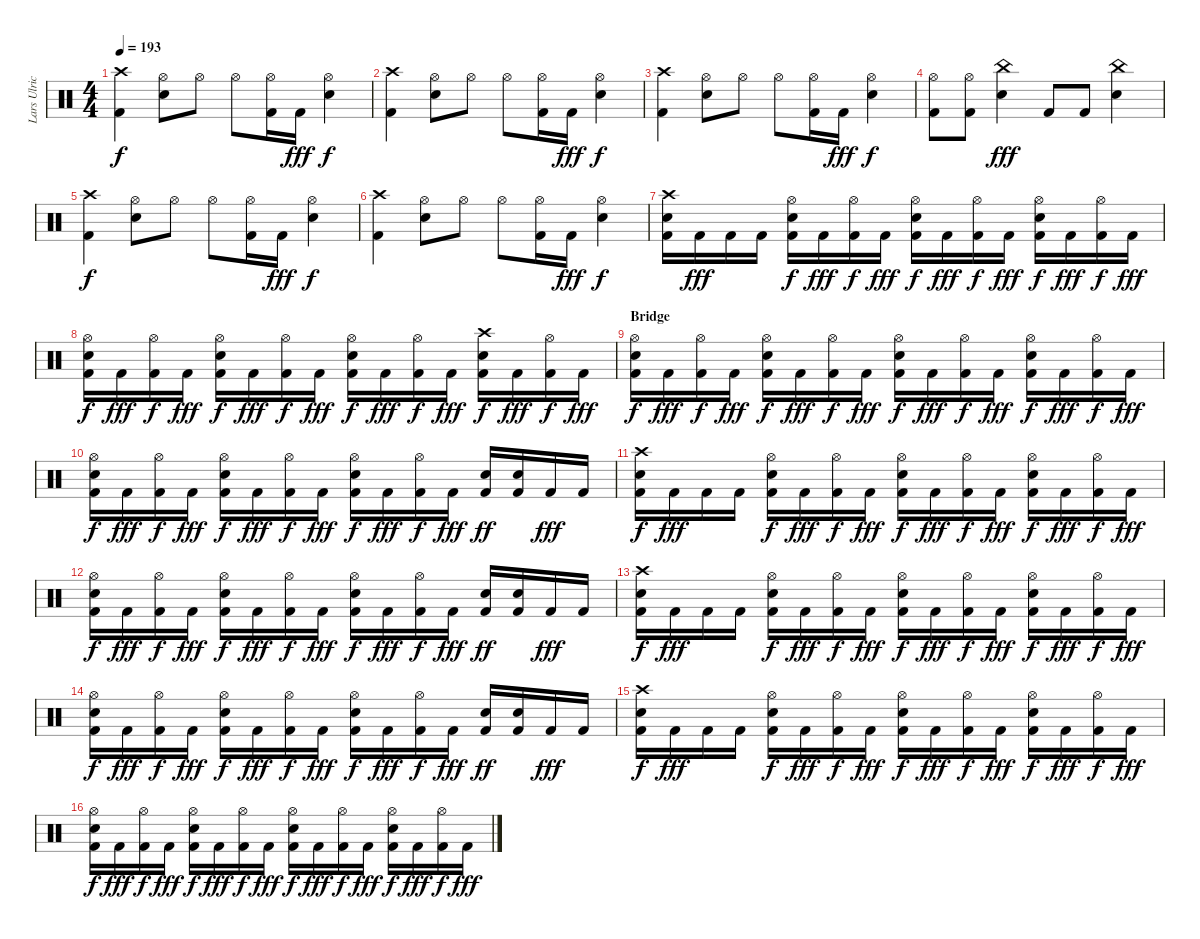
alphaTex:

\track ("Lars Ulrich - Drums" "Lars Ulric") {instrument percussion}
\staff {score}
\articulation defaults
\ts (4 4)
\tempo 193
\clef neutral
\ks c
("Crash high (hit)" "Kick (hit) 2").4{dy f} ("Hi-Hat (open)" "Snare (hit) 2").8 "Hi-Hat (open)".8 "Hi-Hat (open)".8 ("Hi-Hat (open)" "Kick (hit) 2").16 "Kick (hit) 2".16{dy fff} ("Hi-Hat (open)" "Snare (hit) 2").4{dy f} |
("Crash high (hit)" "Kick (hit) 2").4 ("Hi-Hat (open)" "Snare (hit) 2").8 "Hi-Hat (open)".8 "Hi-Hat (open)".8 ("Hi-Hat (open)" "Kick (hit) 2").16 "Kick (hit) 2".16{dy fff} ("Hi-Hat (open)" "Snare (hit) 2").4{dy f} |
("Crash high (hit)" "Kick (hit) 2").4 ("Hi-Hat (open)" "Snare (hit) 2").8 "Hi-Hat (open)".8 "Hi-Hat (open)".8 ("Hi-Hat (open)" "Kick (hit) 2").16 "Kick (hit) 2".16{dy fff} ("Hi-Hat (open)" "Snare (hit) 2").4{dy f} |
("Hi-Hat (open)" "Kick (hit) 2").8 ("Hi-Hat (open)" "Kick (hit) 2").8 ("China (hit)" "Snare (hit) 2").4{dy fff} "Kick (hit) 2".8 "Kick (hit) 2".8 ("China (hit)" "Snare (hit) 2").4 |
("Crash high (hit)" "Kick (hit) 2").4{dy f} ("Hi-Hat (open)" "Snare (hit) 2").8 "Hi-Hat (open)".8 "Hi-Hat (open)".8 ("Hi-Hat (open)" "Kick (hit) 2").16 "Kick (hit) 2".16{dy fff} ("Hi-Hat (open)" "Snare (hit) 2").4{dy f} |
("Crash high (hit)" "Kick (hit) 2").4 ("Hi-Hat (open)" "Snare (hit) 2").8 "Hi-Hat (open)".8 "Hi-Hat (open)".8 ("Hi-Hat (open)" "Kick (hit) 2").16 "Kick (hit) 2".16{dy fff} ("Hi-Hat (open)" "Snare (hit) 2").4{dy f} |
("Crash high (hit)" "Snare (hit) 2" "Kick (hit) 2").16 "Kick (hit) 2".16{dy fff} "Kick (hit) 2".16 "Kick (hit) 2".16 ("Hi-Hat (open)" "Snare (hit) 2" "Kick (hit) 2").16{dy f} "Kick (hit) 2".16{dy fff} ("Hi-Hat (open)" "Kick (hit) 2").16{dy f} "Kick (hit) 2".16{dy fff} ("Hi-Hat (open)" "Snare (hit) 2" "Kick (hit) 2").16{dy f} "Kick (hit) 2".16{dy fff} ("Hi-Hat (open)" "Kick (hit) 2").16{dy f} "Kick (hit) 2".16{dy fff} ("Hi-Hat (open)" "Snare (hit) 2" "Kick (hit) 2").16{dy f} "Kick (hit) 2".16{dy fff} ("Hi-Hat (open)" "Kick (hit) 2").16{dy f} "Kick (hit) 2".16{dy fff} |
("Hi-Hat (open)" "Snare (hit) 2" "Kick (hit) 2").16{dy f} "Kick (hit) 2".16{dy fff} ("Hi-Hat (open)" "Kick (hit) 2").16{dy f} "Kick (hit) 2".16{dy fff} ("Hi-Hat (open)" "Snare (hit) 2" "Kick (hit) 2").16{dy f} "Kick (hit) 2".16{dy fff} ("Hi-Hat (open)" "Kick (hit) 2").16{dy f} "Kick (hit) 2".16{dy fff} ("Hi-Hat (open)" "Snare (hit) 2" "Kick (hit) 2").16{dy f} "Kick (hit) 2".16{dy fff} ("Hi-Hat (open)" "Kick (hit) 2").16{dy f} "Kick (hit) 2".16{dy fff} ("Crash high (hit)" "Snare (hit) 2" "Kick (hit) 2").16{dy f} "Kick (hit) 2".16{dy fff} ("Hi-Hat (open)" "Kick (hit) 2").16{dy f} "Kick (hit) 2".16{dy fff} |
\section ("" "Bridge")
("Hi-Hat (open)" "Snare (hit) 2" "Kick (hit) 2").16{dy f} "Kick (hit) 2".16{dy fff} ("Hi-Hat (open)" "Kick (hit) 2").16{dy f} "Kick (hit) 2".16{dy fff} ("Hi-Hat (open)" "Snare (hit) 2" "Kick (hit) 2").16{dy f} "Kick (hit) 2".16{dy fff} ("Hi-Hat (open)" "Kick (hit) 2").16{dy f} "Kick (hit) 2".16{dy fff} ("Hi-Hat (open)" "Snare (hit) 2" "Kick (hit) 2").16{dy f} "Kick (hit) 2".16{dy fff} ("Hi-Hat (open)" "Kick (hit) 2").16{dy f} "Kick (hit) 2".16{dy fff} ("Hi-Hat (open)" "Snare (hit) 2" "Kick (hit) 2").16{dy f} "Kick (hit) 2".16{dy fff} ("Hi-Hat (open)" "Kick (hit) 2").16{dy f} "Kick (hit) 2".16{dy fff} |
("Hi-Hat (open)" "Snare (hit) 2" "Kick (hit) 2").16{dy f} "Kick (hit) 2".16{dy fff} ("Hi-Hat (open)" "Kick (hit) 2").16{dy f} "Kick (hit) 2".16{dy fff} ("Hi-Hat (open)" "Snare (hit) 2" "Kick (hit) 2").16{dy f} "Kick (hit) 2".16{dy fff} ("Hi-Hat (open)" "Kick (hit) 2").16{dy f} "Kick (hit) 2".16{dy fff} ("Hi-Hat (open)" "Snare (hit) 2" "Kick (hit) 2").16{dy f} "Kick (hit) 2".16{dy fff} ("Hi-Hat (open)" "Kick (hit) 2").16{dy f} "Kick (hit) 2".16{dy fff} ("Snare (hit) 2" "Kick (hit) 2").16{dy ff} ("Snare (hit) 2" "Kick (hit) 2").16 "Kick (hit) 2".16{dy fff} "Kick (hit) 2".16 |
("Crash high (hit)" "Snare (hit) 2" "Kick (hit) 2").16{dy f} "Kick (hit) 2".16{dy fff} "Kick (hit) 2".16 "Kick (hit) 2".16 ("Hi-Hat (open)" "Snare (hit) 2" "Kick (hit) 2").16{dy f} "Kick (hit) 2".16{dy fff} ("Hi-Hat (open)" "Kick (hit) 2").16{dy f} "Kick (hit) 2".16{dy fff} ("Hi-Hat (open)" "Snare (hit) 2" "Kick (hit) 2").16{dy f} "Kick (hit) 2".16{dy fff} ("Hi-Hat (open)" "Kick (hit) 2").16{dy f} "Kick (hit) 2".16{dy fff} ("Hi-Hat (open)" "Snare (hit) 2" "Kick (hit) 2").16{dy f} "Kick (hit) 2".16{dy fff} ("Hi-Hat (open)" "Kick (hit) 2").16{dy f} "Kick (hit) 2".16{dy fff} |
("Hi-Hat (open)" "Snare (hit) 2" "Kick (hit) 2").16{dy f} "Kick (hit) 2".16{dy fff} ("Hi-Hat (open)" "Kick (hit) 2").16{dy f} "Kick (hit) 2".16{dy fff} ("Hi-Hat (open)" "Snare (hit) 2" "Kick (hit) 2").16{dy f} "Kick (hit) 2".16{dy fff} ("Hi-Hat (open)" "Kick (hit) 2").16{dy f} "Kick (hit) 2".16{dy fff} ("Hi-Hat (open)" "Snare (hit) 2" "Kick (hit) 2").16{dy f} "Kick (hit) 2".16{dy fff} ("Hi-Hat (open)" "Kick (hit) 2").16{dy f} "Kick (hit) 2".16{dy fff} ("Snare (hit) 2" "Kick (hit) 2").16{dy ff} ("Snare (hit) 2" "Kick (hit) 2").16 "Kick (hit) 2".16{dy fff} "Kick (hit) 2".16 |
("Crash high (hit)" "Snare (hit) 2" "Kick (hit) 2").16{dy f} "Kick (hit) 2".16{dy fff} "Kick (hit) 2".16 "Kick (hit) 2".16 ("Hi-Hat (open)" "Snare (hit) 2" "Kick (hit) 2").16{dy f} "Kick (hit) 2".16{dy fff} ("Hi-Hat (open)" "Kick (hit) 2").16{dy f} "Kick (hit) 2".16{dy fff} ("Hi-Hat (open)" "Snare (hit) 2" "Kick (hit) 2").16{dy f} "Kick (hit) 2".16{dy fff} ("Hi-Hat (open)" "Kick (hit) 2").16{dy f} "Kick (hit) 2".16{dy fff} ("Hi-Hat (open)" "Snare (hit) 2" "Kick (hit) 2").16{dy f} "Kick (hit) 2".16{dy fff} ("Hi-Hat (open)" "Kick (hit) 2").16{dy f} "Kick (hit) 2".16{dy fff} |
("Hi-Hat (open)" "Snare (hit) 2" "Kick (hit) 2").16{dy f} "Kick (hit) 2".16{dy fff} ("Hi-Hat (open)" "Kick (hit) 2").16{dy f} "Kick (hit) 2".16{dy fff} ("Hi-Hat (open)" "Snare (hit) 2" "Kick (hit) 2").16{dy f} "Kick (hit) 2".16{dy fff} ("Hi-Hat (open)" "Kick (hit) 2").16{dy f} "Kick (hit) 2".16{dy fff} ("Hi-Hat (open)" "Snare (hit) 2" "Kick (hit) 2").16{dy f} "Kick (hit) 2".16{dy fff} ("Hi-Hat (open)" "Kick (hit) 2").16{dy f} "Kick (hit) 2".16{dy fff} ("Snare (hit) 2" "Kick (hit) 2").16{dy ff} ("Snare (hit) 2" "Kick (hit) 2").16 "Kick (hit) 2".16{dy fff} "Kick (hit) 2".16 |
("Crash high (hit)" "Snare (hit) 2" "Kick (hit) 2").16{dy f} "Kick (hit) 2".16{dy fff} "Kick (hit) 2".16 "Kick (hit) 2".16 ("Hi-Hat (open)" "Snare (hit) 2" "Kick (hit) 2").16{dy f} "Kick (hit) 2".16{dy fff} ("Hi-Hat (open)" "Kick (hit) 2").16{dy f} "Kick (hit) 2".16{dy fff} ("Hi-Hat (open)" "Snare (hit) 2" "Kick (hit) 2").16{dy f} "Kick (hit) 2".16{dy fff} ("Hi-Hat (open)" "Kick (hit) 2").16{dy f} "Kick (hit) 2".16{dy fff} ("Hi-Hat (open)" "Snare (hit) 2" "Kick (hit) 2").16{dy f} "Kick (hit) 2".16{dy fff} ("Hi-Hat (open)" "Kick (hit) 2").16{dy f} "Kick (hit) 2".16{dy fff} |
("Hi-Hat (open)" "Snare (hit) 2" "Kick (hit) 2").16{dy f} "Kick (hit) 2".16{dy fff} ("Hi-Hat (open)" "Kick (hit) 2").16{dy f} "Kick (hit) 2".16{dy fff} ("Hi-Hat (open)" "Snare (hit) 2" "Kick (hit) 2").16{dy f} "Kick (hit) 2".16{dy fff} ("Hi-Hat (open)" "Kick (hit) 2").16{dy f} "Kick (hit) 2".16{dy fff} ("Hi-Hat (open)" "Snare (hit) 2" "Kick (hit) 2").16{dy f} "Kick (hit) 2".16{dy fff} ("Hi-Hat (open)" "Kick (hit) 2").16{dy f} "Kick (hit) 2".16{dy fff} ("Hi-Hat (open)" "Snare (hit) 2" "Kick (hit) 2").16{dy f} "Kick (hit) 2".16{dy fff} ("Hi-Hat (open)" "Kick (hit) 2").16{dy f} "Kick (hit) 2".16{dy fff}
